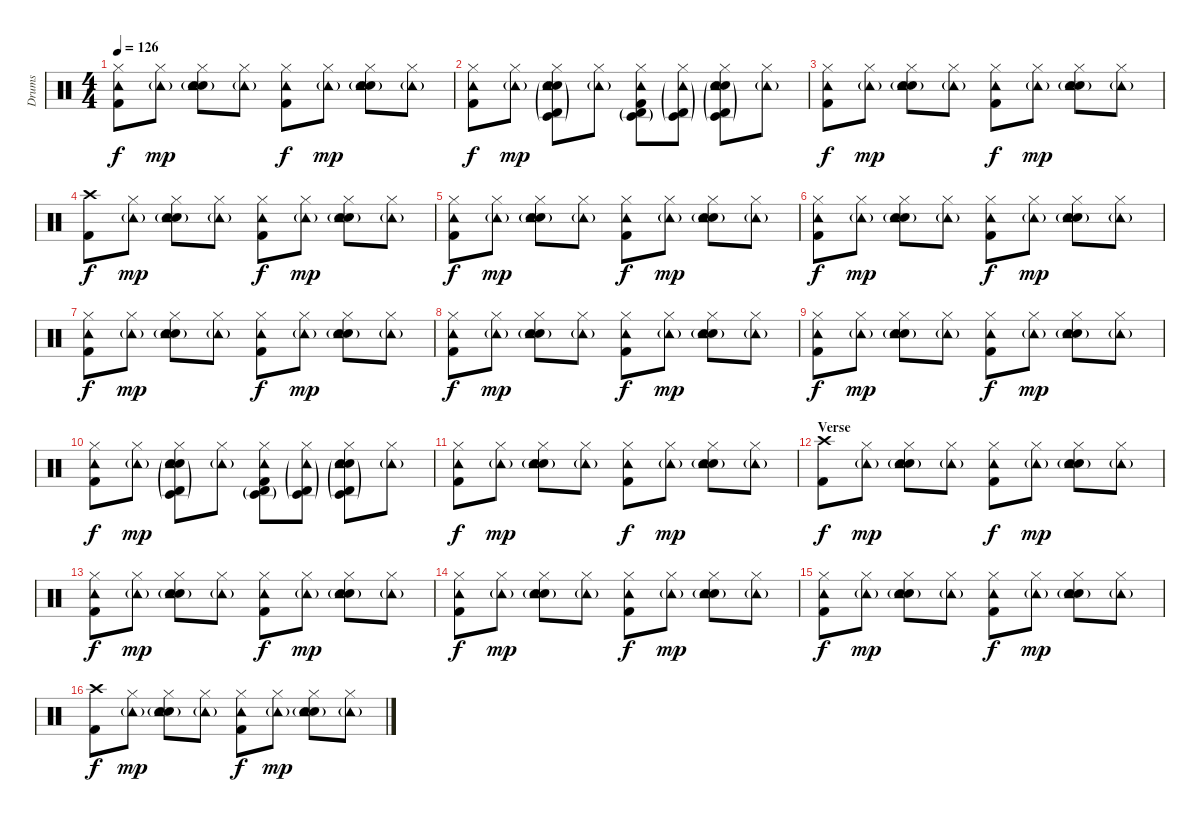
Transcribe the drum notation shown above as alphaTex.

\track ("Drums" "Drums") {instrument percussion}
\staff {score}
\articulation defaults
\ts (4 4)
\tempo 126
\clef neutral
\ks c
("Kick (hit) 2" "Hi-Hat (closed)" "Tambourine (hit)").8{dy f} ("Hi-Hat (closed)" "Tambourine (hit)"{g}).8{dy mp} ("Snare (hit) 2" "Hi-Hat (closed)" "Tambourine (hit)" "Hand Clap (hit)"{g}).8 ("Hi-Hat (closed)" "Tambourine (hit)"{g}).8 ("Kick (hit) 2" "Hi-Hat (closed)" "Tambourine (hit)").8{dy f} ("Hi-Hat (closed)" "Tambourine (hit)"{g}).8{dy mp} ("Snare (hit) 2" "Hi-Hat (closed)" "Tambourine (hit)" "Hand Clap (hit)"{g}).8 ("Hi-Hat (closed)" "Tambourine (hit)"{g}).8 |
("Kick (hit) 2" "Hi-Hat (closed)" "Tambourine (hit)").8{dy f} ("Hi-Hat (closed)" "Tambourine (hit)"{g}).8{dy mp} ("Timbale low (hit)"{g} "Timbale high (hit)"{g} "Snare (hit) 2" "Hi-Hat (closed)" "Tambourine (hit)" "Hand Clap (hit)"{g}).8 ("Hi-Hat (closed)" "Tambourine (hit)"{g}).8 ("Kick (hit) 2" "Timbale low (hit)"{g} "Timbale high (hit)"{g} "Hi-Hat (closed)" "Tambourine (hit)").8 ("Timbale low (hit)"{g} "Timbale high (hit)"{g} "Hi-Hat (closed)" "Tambourine (hit)"{g}).8 ("Timbale low (hit)"{g} "Timbale high (hit)"{g} "Snare (hit) 2" "Hi-Hat (closed)" "Tambourine (hit)" "Hand Clap (hit)"{g}).8 ("Hi-Hat (closed)" "Tambourine (hit)"{g}).8 |
\section ("" "")
("Kick (hit) 2" "Hi-Hat (closed)" "Tambourine (hit)").8{dy f} ("Hi-Hat (closed)" "Tambourine (hit)"{g}).8{dy mp} ("Snare (hit) 2" "Hi-Hat (closed)" "Tambourine (hit)" "Hand Clap (hit)"{g}).8 ("Hi-Hat (closed)" "Tambourine (hit)"{g}).8 ("Kick (hit) 2" "Hi-Hat (closed)" "Tambourine (hit)").8{dy f} ("Hi-Hat (closed)" "Tambourine (hit)"{g}).8{dy mp} ("Snare (hit) 2" "Hi-Hat (closed)" "Tambourine (hit)" "Hand Clap (hit)"{g}).8 ("Hi-Hat (closed)" "Tambourine (hit)"{g}).8 |
("Kick (hit) 2" "Crash high (hit)").8{dy f} ("Hi-Hat (closed)" "Tambourine (hit)"{g}).8{dy mp} ("Snare (hit) 2" "Hi-Hat (closed)" "Tambourine (hit)" "Hand Clap (hit)"{g}).8 ("Hi-Hat (closed)" "Tambourine (hit)"{g}).8 ("Kick (hit) 2" "Hi-Hat (closed)" "Tambourine (hit)").8{dy f} ("Hi-Hat (closed)" "Tambourine (hit)"{g}).8{dy mp} ("Snare (hit) 2" "Hi-Hat (closed)" "Tambourine (hit)" "Hand Clap (hit)"{g}).8 ("Hi-Hat (closed)" "Tambourine (hit)"{g}).8 |
("Kick (hit) 2" "Hi-Hat (closed)" "Tambourine (hit)").8{dy f} ("Hi-Hat (closed)" "Tambourine (hit)"{g}).8{dy mp} ("Snare (hit) 2" "Hi-Hat (closed)" "Tambourine (hit)" "Hand Clap (hit)"{g}).8 ("Hi-Hat (closed)" "Tambourine (hit)"{g}).8 ("Kick (hit) 2" "Hi-Hat (closed)" "Tambourine (hit)").8{dy f} ("Hi-Hat (closed)" "Tambourine (hit)"{g}).8{dy mp} ("Snare (hit) 2" "Hi-Hat (closed)" "Tambourine (hit)" "Hand Clap (hit)"{g}).8 ("Hi-Hat (closed)" "Tambourine (hit)"{g}).8 |
("Kick (hit) 2" "Hi-Hat (closed)" "Tambourine (hit)").8{dy f} ("Hi-Hat (closed)" "Tambourine (hit)"{g}).8{dy mp} ("Snare (hit) 2" "Hi-Hat (closed)" "Tambourine (hit)" "Hand Clap (hit)"{g}).8 ("Hi-Hat (closed)" "Tambourine (hit)"{g}).8 ("Kick (hit) 2" "Hi-Hat (closed)" "Tambourine (hit)").8{dy f} ("Hi-Hat (closed)" "Tambourine (hit)"{g}).8{dy mp} ("Snare (hit) 2" "Hi-Hat (closed)" "Tambourine (hit)" "Hand Clap (hit)"{g}).8 ("Hi-Hat (closed)" "Tambourine (hit)"{g}).8 |
("Kick (hit) 2" "Hi-Hat (closed)" "Tambourine (hit)").8{dy f} ("Hi-Hat (closed)" "Tambourine (hit)"{g}).8{dy mp} ("Snare (hit) 2" "Hi-Hat (closed)" "Tambourine (hit)" "Hand Clap (hit)"{g}).8 ("Hi-Hat (closed)" "Tambourine (hit)"{g}).8 ("Kick (hit) 2" "Hi-Hat (closed)" "Tambourine (hit)").8{dy f} ("Hi-Hat (closed)" "Tambourine (hit)"{g}).8{dy mp} ("Snare (hit) 2" "Hi-Hat (closed)" "Tambourine (hit)" "Hand Clap (hit)"{g}).8 ("Hi-Hat (closed)" "Tambourine (hit)"{g}).8 |
("Kick (hit) 2" "Hi-Hat (closed)" "Tambourine (hit)").8{dy f} ("Hi-Hat (closed)" "Tambourine (hit)"{g}).8{dy mp} ("Snare (hit) 2" "Hi-Hat (closed)" "Tambourine (hit)" "Hand Clap (hit)"{g}).8 ("Hi-Hat (closed)" "Tambourine (hit)"{g}).8 ("Kick (hit) 2" "Hi-Hat (closed)" "Tambourine (hit)").8{dy f} ("Hi-Hat (closed)" "Tambourine (hit)"{g}).8{dy mp} ("Snare (hit) 2" "Hi-Hat (closed)" "Tambourine (hit)" "Hand Clap (hit)"{g}).8 ("Hi-Hat (closed)" "Tambourine (hit)"{g}).8 |
("Kick (hit) 2" "Hi-Hat (closed)" "Tambourine (hit)").8{dy f} ("Hi-Hat (closed)" "Tambourine (hit)"{g}).8{dy mp} ("Snare (hit) 2" "Hi-Hat (closed)" "Tambourine (hit)" "Hand Clap (hit)"{g}).8 ("Hi-Hat (closed)" "Tambourine (hit)"{g}).8 ("Kick (hit) 2" "Hi-Hat (closed)" "Tambourine (hit)").8{dy f} ("Hi-Hat (closed)" "Tambourine (hit)"{g}).8{dy mp} ("Snare (hit) 2" "Hi-Hat (closed)" "Tambourine (hit)" "Hand Clap (hit)"{g}).8 ("Hi-Hat (closed)" "Tambourine (hit)"{g}).8 |
("Kick (hit) 2" "Hi-Hat (closed)" "Tambourine (hit)").8{dy f} ("Hi-Hat (closed)" "Tambourine (hit)"{g}).8{dy mp} ("Timbale low (hit)"{g} "Timbale high (hit)"{g} "Snare (hit) 2" "Hi-Hat (closed)" "Tambourine (hit)" "Hand Clap (hit)"{g}).8 ("Hi-Hat (closed)" "Tambourine (hit)"{g}).8 ("Kick (hit) 2" "Timbale low (hit)"{g} "Timbale high (hit)"{g} "Hi-Hat (closed)" "Tambourine (hit)").8 ("Timbale low (hit)"{g} "Timbale high (hit)"{g} "Hi-Hat (closed)" "Tambourine (hit)"{g}).8 ("Timbale low (hit)"{g} "Timbale high (hit)"{g} "Snare (hit) 2" "Hi-Hat (closed)" "Tambourine (hit)" "Hand Clap (hit)"{g}).8 ("Hi-Hat (closed)" "Tambourine (hit)"{g}).8 |
("Kick (hit) 2" "Hi-Hat (closed)" "Tambourine (hit)").8{dy f} ("Hi-Hat (closed)" "Tambourine (hit)"{g}).8{dy mp} ("Snare (hit) 2" "Hi-Hat (closed)" "Tambourine (hit)" "Hand Clap (hit)"{g}).8 ("Hi-Hat (closed)" "Tambourine (hit)"{g}).8 ("Kick (hit) 2" "Hi-Hat (closed)" "Tambourine (hit)").8{dy f} ("Hi-Hat (closed)" "Tambourine (hit)"{g}).8{dy mp} ("Snare (hit) 2" "Hi-Hat (closed)" "Tambourine (hit)" "Hand Clap (hit)"{g}).8 ("Hi-Hat (closed)" "Tambourine (hit)"{g}).8 |
\section ("" "Verse")
("Kick (hit) 2" "Crash high (hit)").8{dy f} ("Hi-Hat (closed)" "Tambourine (hit)"{g}).8{dy mp} ("Snare (hit) 2" "Hi-Hat (closed)" "Tambourine (hit)" "Hand Clap (hit)"{g}).8 ("Hi-Hat (closed)" "Tambourine (hit)"{g}).8 ("Kick (hit) 2" "Hi-Hat (closed)" "Tambourine (hit)").8{dy f} ("Hi-Hat (closed)" "Tambourine (hit)"{g}).8{dy mp} ("Snare (hit) 2" "Hi-Hat (closed)" "Tambourine (hit)" "Hand Clap (hit)"{g}).8 ("Hi-Hat (closed)" "Tambourine (hit)"{g}).8 |
("Kick (hit) 2" "Hi-Hat (closed)" "Tambourine (hit)").8{dy f} ("Hi-Hat (closed)" "Tambourine (hit)"{g}).8{dy mp} ("Snare (hit) 2" "Hi-Hat (closed)" "Tambourine (hit)" "Hand Clap (hit)"{g}).8 ("Hi-Hat (closed)" "Tambourine (hit)"{g}).8 ("Kick (hit) 2" "Hi-Hat (closed)" "Tambourine (hit)").8{dy f} ("Hi-Hat (closed)" "Tambourine (hit)"{g}).8{dy mp} ("Snare (hit) 2" "Hi-Hat (closed)" "Tambourine (hit)" "Hand Clap (hit)"{g}).8 ("Hi-Hat (closed)" "Tambourine (hit)"{g}).8 |
("Kick (hit) 2" "Hi-Hat (closed)" "Tambourine (hit)").8{dy f} ("Hi-Hat (closed)" "Tambourine (hit)"{g}).8{dy mp} ("Snare (hit) 2" "Hi-Hat (closed)" "Tambourine (hit)" "Hand Clap (hit)"{g}).8 ("Hi-Hat (closed)" "Tambourine (hit)"{g}).8 ("Kick (hit) 2" "Hi-Hat (closed)" "Tambourine (hit)").8{dy f} ("Hi-Hat (closed)" "Tambourine (hit)"{g}).8{dy mp} ("Snare (hit) 2" "Hi-Hat (closed)" "Tambourine (hit)" "Hand Clap (hit)"{g}).8 ("Hi-Hat (closed)" "Tambourine (hit)"{g}).8 |
("Kick (hit) 2" "Hi-Hat (closed)" "Tambourine (hit)").8{dy f} ("Hi-Hat (closed)" "Tambourine (hit)"{g}).8{dy mp} ("Snare (hit) 2" "Hi-Hat (closed)" "Tambourine (hit)" "Hand Clap (hit)"{g}).8 ("Hi-Hat (closed)" "Tambourine (hit)"{g}).8 ("Kick (hit) 2" "Hi-Hat (closed)" "Tambourine (hit)").8{dy f} ("Hi-Hat (closed)" "Tambourine (hit)"{g}).8{dy mp} ("Snare (hit) 2" "Hi-Hat (closed)" "Tambourine (hit)" "Hand Clap (hit)"{g}).8 ("Hi-Hat (closed)" "Tambourine (hit)"{g}).8 |
("Kick (hit) 2" "Crash high (hit)").8{dy f} ("Hi-Hat (closed)" "Tambourine (hit)"{g}).8{dy mp} ("Snare (hit) 2" "Hi-Hat (closed)" "Tambourine (hit)" "Hand Clap (hit)"{g}).8 ("Hi-Hat (closed)" "Tambourine (hit)"{g}).8 ("Kick (hit) 2" "Hi-Hat (closed)" "Tambourine (hit)").8{dy f} ("Hi-Hat (closed)" "Tambourine (hit)"{g}).8{dy mp} ("Snare (hit) 2" "Hi-Hat (closed)" "Tambourine (hit)" "Hand Clap (hit)"{g}).8 ("Hi-Hat (closed)" "Tambourine (hit)"{g}).8
